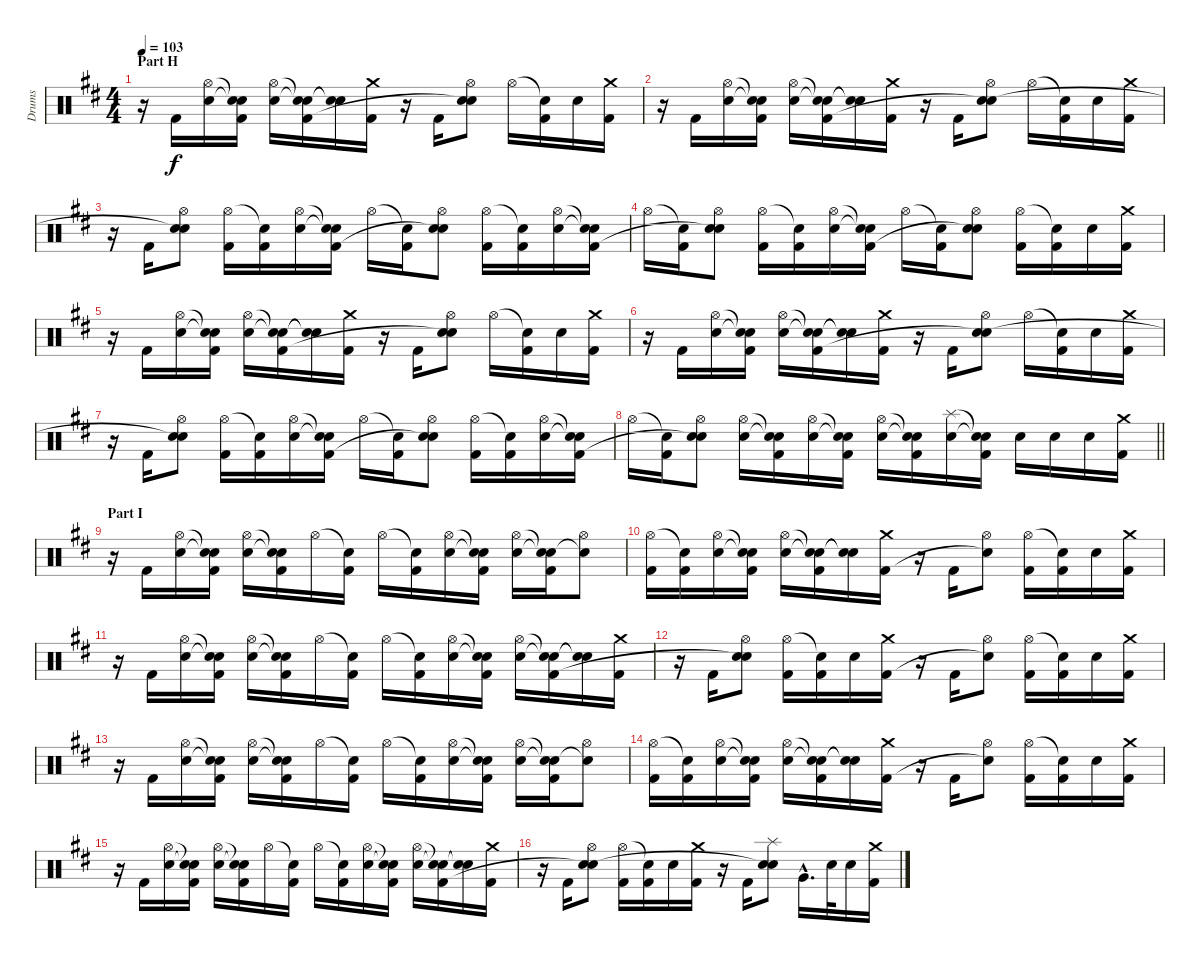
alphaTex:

\track ("Drums" "Drums") {instrument percussion}
\staff {score}
\articulation defaults
\ts (4 4)
\section ("" "Part H")
\tempo 103
\clef neutral
\ks d
r.16{dy f} "Kick (hit) 2".16 ("Hi-Hat (open)" "Electric Snare (hit)").16 ("Snare (hit)"{t} "Snare (hit)"{t} "Kick (hit) 2").16 ("Hi-Hat (open)" "Electric Snare (hit)").16 ("Snare (hit)"{t} "Snare (hit)"{t} "Kick (hit) 2").16 ("Snare (hit)"{t} "Snare (hit)"{t}).16 ("Crash medium (hit)" "Kick (hit) 2").16 r.16 "Kick (hit) 2".16 ("Hi-Hat (open)" "Electric Snare (hit)" "Snare (hit)"{t}).8 "Hi-Hat (open)".16 ("Snare (hit)"{t} "Kick (hit) 2").16 "Electric Snare (hit)".16 ("Crash medium (hit)" "Kick (hit) 2").16 |
r.16 "Kick (hit) 2".16 ("Hi-Hat (open)" "Electric Snare (hit)").16 ("Snare (hit)"{t} "Snare (hit)"{t} "Kick (hit) 2").16 ("Hi-Hat (open)" "Electric Snare (hit)").16 ("Snare (hit)"{t} "Snare (hit)"{t} "Kick (hit) 2").16 ("Snare (hit)"{t} "Snare (hit)"{t}).16 ("Crash medium (hit)" "Kick (hit) 2").16 r.16 "Kick (hit) 2".16 ("Hi-Hat (open)" "Electric Snare (hit)" "Snare (hit)"{t}).8 "Hi-Hat (open)".16 ("Snare (hit)"{t} "Kick (hit) 2").16 "Electric Snare (hit)".16 ("Crash medium (hit)" "Kick (hit) 2").16 |
r.16 "Kick (hit) 2".16 ("Hi-Hat (open)" "Electric Snare (hit)" "Snare (hit)"{t}).8 ("Hi-Hat (open)" "Kick (hit) 2").16 ("Snare (hit)"{t} "Kick (hit) 2").16 ("Hi-Hat (open)" "Electric Snare (hit)").16 ("Snare (hit)"{t} "Snare (hit)"{t} "Kick (hit) 2").16 "Hi-Hat (open)".16 ("Snare (hit)"{t} "Kick (hit) 2").16 ("Hi-Hat (open)" "Electric Snare (hit)" "Snare (hit)"{t}).8 ("Hi-Hat (open)" "Kick (hit) 2").16 ("Snare (hit)"{t} "Kick (hit) 2").16 ("Hi-Hat (open)" "Electric Snare (hit)").16 ("Snare (hit)"{t} "Snare (hit)"{t} "Kick (hit) 2").16 |
"Hi-Hat (open)".16 ("Snare (hit)"{t} "Kick (hit) 2").16 ("Hi-Hat (open)" "Electric Snare (hit)" "Snare (hit)"{t}).8 ("Hi-Hat (open)" "Kick (hit) 2").16 ("Snare (hit)"{t} "Kick (hit) 2").16 ("Hi-Hat (open)" "Electric Snare (hit)").16 ("Snare (hit)"{t} "Snare (hit)"{t} "Kick (hit) 2").16 "Hi-Hat (open)".16 ("Snare (hit)"{t} "Kick (hit) 2").16 ("Hi-Hat (open)" "Electric Snare (hit)" "Snare (hit)"{t}).8 ("Hi-Hat (open)" "Kick (hit) 2").16 ("Snare (hit)"{t} "Kick (hit) 2").16 "Electric Snare (hit)".16 ("Crash medium (hit)" "Kick (hit) 2").16 |
r.16 "Kick (hit) 2".16 ("Hi-Hat (open)" "Electric Snare (hit)").16 ("Snare (hit)"{t} "Snare (hit)"{t} "Kick (hit) 2").16 ("Hi-Hat (open)" "Electric Snare (hit)").16 ("Snare (hit)"{t} "Snare (hit)"{t} "Kick (hit) 2").16 ("Snare (hit)"{t} "Snare (hit)"{t}).16 ("Crash medium (hit)" "Kick (hit) 2").16 r.16 "Kick (hit) 2".16 ("Hi-Hat (open)" "Electric Snare (hit)" "Snare (hit)"{t}).8 "Hi-Hat (open)".16 ("Snare (hit)"{t} "Kick (hit) 2").16 "Electric Snare (hit)".16 ("Crash medium (hit)" "Kick (hit) 2").16 |
r.16 "Kick (hit) 2".16 ("Hi-Hat (open)" "Electric Snare (hit)").16 ("Snare (hit)"{t} "Snare (hit)"{t} "Kick (hit) 2").16 ("Hi-Hat (open)" "Electric Snare (hit)").16 ("Snare (hit)"{t} "Snare (hit)"{t} "Kick (hit) 2").16 ("Snare (hit)"{t} "Snare (hit)"{t}).16 ("Crash medium (hit)" "Kick (hit) 2").16 r.16 "Kick (hit) 2".16 ("Hi-Hat (open)" "Electric Snare (hit)" "Snare (hit)"{t}).8 "Hi-Hat (open)".16 ("Snare (hit)"{t} "Kick (hit) 2").16 "Electric Snare (hit)".16 ("Crash medium (hit)" "Kick (hit) 2").16 |
r.16 "Kick (hit) 2".16 ("Hi-Hat (open)" "Electric Snare (hit)" "Snare (hit)"{t}).8 ("Hi-Hat (open)" "Kick (hit) 2").16 ("Snare (hit)"{t} "Kick (hit) 2").16 ("Hi-Hat (open)" "Electric Snare (hit)").16 ("Snare (hit)"{t} "Snare (hit)"{t} "Kick (hit) 2").16 "Hi-Hat (open)".16 ("Snare (hit)"{t} "Kick (hit) 2").16 ("Hi-Hat (open)" "Electric Snare (hit)" "Snare (hit)"{t}).8 ("Hi-Hat (open)" "Kick (hit) 2").16 ("Snare (hit)"{t} "Kick (hit) 2").16 ("Hi-Hat (open)" "Electric Snare (hit)").16 ("Snare (hit)"{t} "Snare (hit)"{t} "Kick (hit) 2").16 |
\barLineRight lightlight "Hi-Hat (open)".16
("Snare (hit)"{t} "Kick (hit) 2").16 ("Hi-Hat (open)" "Electric Snare (hit)" "Snare (hit)"{t}).8 ("Hi-Hat (open)" "Electric Snare (hit)").16 ("Snare (hit)"{t} "Snare (hit)"{t} "Kick (hit) 2").16 ("Hi-Hat (open)" "Electric Snare (hit)").16 ("Snare (hit)"{t} "Snare (hit)"{t} "Kick (hit) 2").16 ("Hi-Hat (open)" "Electric Snare (hit)").16 ("Snare (hit)"{t} "Snare (hit)"{t} "Kick (hit) 2").16 ("Splash (hit)" "Electric Snare (hit)").16 ("Snare (hit)"{t} "Snare (hit)"{t} "Kick (hit) 2").16 "Electric Snare (hit)".16 "Electric Snare (hit)".16 "Electric Snare (hit)".16 ("Crash medium (hit)" "Kick (hit) 2").16 |
\section ("" "Part I")
r.16 "Kick (hit) 2".16 ("Hi-Hat (open)" "Electric Snare (hit)").16 ("Snare (hit)"{t} "Snare (hit)"{t} "Kick (hit) 2").16 ("Hi-Hat (open)" "Electric Snare (hit)").16 ("Snare (hit)"{t} "Snare (hit)"{t} "Kick (hit) 2").16 "Hi-Hat (open)".16 ("Snare (hit)"{t} "Kick (hit) 2").16 "Hi-Hat (open)".16 ("Snare (hit)"{t} "Kick (hit) 2").16 ("Hi-Hat (open)" "Electric Snare (hit)").16 ("Snare (hit)"{t} "Snare (hit)"{t} "Kick (hit) 2").16 ("Hi-Hat (open)" "Electric Snare (hit)").16 ("Snare (hit)"{t} "Snare (hit)"{t} "Kick (hit) 2").16 ("Hi-Hat (open)" "Snare (hit)"{t}).8 |
("Hi-Hat (open)" "Kick (hit) 2").16 ("Snare (hit)"{t} "Kick (hit) 2").16 ("Hi-Hat (open)" "Electric Snare (hit)").16 ("Snare (hit)"{t} "Snare (hit)"{t} "Kick (hit) 2").16 ("Hi-Hat (open)" "Electric Snare (hit)").16 ("Snare (hit)"{t} "Snare (hit)"{t} "Kick (hit) 2").16 ("Snare (hit)"{t} "Snare (hit)"{t}).16 ("Crash medium (hit)" "Kick (hit) 2").16 r.16 "Kick (hit) 2".16 ("Hi-Hat (open)" "Snare (hit)"{t}).8 ("Hi-Hat (open)" "Kick (hit) 2").16 ("Snare (hit)"{t} "Kick (hit) 2").16 "Electric Snare (hit)".16 ("Crash medium (hit)" "Kick (hit) 2").16 |
r.16 "Kick (hit) 2".16 ("Hi-Hat (open)" "Electric Snare (hit)").16 ("Snare (hit)"{t} "Snare (hit)"{t} "Kick (hit) 2").16 ("Hi-Hat (open)" "Electric Snare (hit)").16 ("Snare (hit)"{t} "Snare (hit)"{t} "Kick (hit) 2").16 "Hi-Hat (open)".16 ("Snare (hit)"{t} "Kick (hit) 2").16 "Hi-Hat (open)".16 ("Snare (hit)"{t} "Kick (hit) 2").16 ("Hi-Hat (open)" "Electric Snare (hit)").16 ("Snare (hit)"{t} "Snare (hit)"{t} "Kick (hit) 2").16 ("Hi-Hat (open)" "Electric Snare (hit)").16 ("Snare (hit)"{t} "Snare (hit)"{t} "Kick (hit) 2").16 ("Snare (hit)"{t} "Snare (hit)"{t}).16 ("Crash medium (hit)" "Kick (hit) 2").16 |
r.16 "Kick (hit) 2".16 ("Hi-Hat (open)" "Electric Snare (hit)" "Snare (hit)"{t}).8 ("Hi-Hat (open)" "Kick (hit) 2").16 ("Snare (hit)"{t} "Kick (hit) 2").16 "Electric Snare (hit)".16 ("Crash medium (hit)" "Kick (hit) 2").16 r.16 "Kick (hit) 2".16 ("Hi-Hat (open)" "Snare (hit)"{t}).8 ("Hi-Hat (open)" "Kick (hit) 2").16 ("Snare (hit)"{t} "Kick (hit) 2").16 "Electric Snare (hit)".16 ("Crash medium (hit)" "Kick (hit) 2").16 |
r.16 "Kick (hit) 2".16 ("Hi-Hat (open)" "Electric Snare (hit)").16 ("Snare (hit)"{t} "Snare (hit)"{t} "Kick (hit) 2").16 ("Hi-Hat (open)" "Electric Snare (hit)").16 ("Snare (hit)"{t} "Snare (hit)"{t} "Kick (hit) 2").16 "Hi-Hat (open)".16 ("Snare (hit)"{t} "Kick (hit) 2").16 "Hi-Hat (open)".16 ("Snare (hit)"{t} "Kick (hit) 2").16 ("Hi-Hat (open)" "Electric Snare (hit)").16 ("Snare (hit)"{t} "Snare (hit)"{t} "Kick (hit) 2").16 ("Hi-Hat (open)" "Electric Snare (hit)").16 ("Snare (hit)"{t} "Snare (hit)"{t} "Kick (hit) 2").16 ("Hi-Hat (open)" "Snare (hit)"{t}).8 |
("Hi-Hat (open)" "Kick (hit) 2").16 ("Snare (hit)"{t} "Kick (hit) 2").16 ("Hi-Hat (open)" "Electric Snare (hit)").16 ("Snare (hit)"{t} "Snare (hit)"{t} "Kick (hit) 2").16 ("Hi-Hat (open)" "Electric Snare (hit)").16 ("Snare (hit)"{t} "Snare (hit)"{t} "Kick (hit) 2").16 ("Snare (hit)"{t} "Snare (hit)"{t}).16 ("Crash medium (hit)" "Kick (hit) 2").16 r.16 "Kick (hit) 2".16 ("Hi-Hat (open)" "Snare (hit)"{t}).8 ("Hi-Hat (open)" "Kick (hit) 2").16 ("Snare (hit)"{t} "Kick (hit) 2").16 "Electric Snare (hit)".16 ("Crash medium (hit)" "Kick (hit) 2").16 |
r.16 "Kick (hit) 2".16 ("Hi-Hat (open)" "Electric Snare (hit)").16 ("Snare (hit)"{t} "Snare (hit)"{t} "Kick (hit) 2").16 ("Hi-Hat (open)" "Electric Snare (hit)").16 ("Snare (hit)"{t} "Snare (hit)"{t} "Kick (hit) 2").16 "Hi-Hat (open)".16 ("Snare (hit)"{t} "Kick (hit) 2").16 "Hi-Hat (open)".16 ("Snare (hit)"{t} "Kick (hit) 2").16 ("Hi-Hat (open)" "Electric Snare (hit)").16 ("Snare (hit)"{t} "Snare (hit)"{t} "Kick (hit) 2").16 ("Hi-Hat (open)" "Electric Snare (hit)").16 ("Snare (hit)"{t} "Snare (hit)"{t} "Kick (hit) 2").16 ("Snare (hit)"{t} "Snare (hit)"{t}).16 ("Crash medium (hit)" "Kick (hit) 2").16 |
r.16 "Kick (hit) 2".16 ("Hi-Hat (open)" "Electric Snare (hit)" "Snare (hit)"{t}).8 ("Hi-Hat (open)" "Kick (hit) 2").16 ("Snare (hit)"{t} "Kick (hit) 2").16 "Electric Snare (hit)".16 ("Crash medium (hit)" "Kick (hit) 2").16 r.16 "Kick (hit) 2".16 ("Splash (hit)" "Electric Snare (hit)" "Snare (hit)"{t}).8 "Very Low Tom (hit)"{hac}.16{d} "Electric Snare (hit)".32 "Electric Snare (hit)".16 ("Crash medium (hit)" "Kick (hit) 2").16
